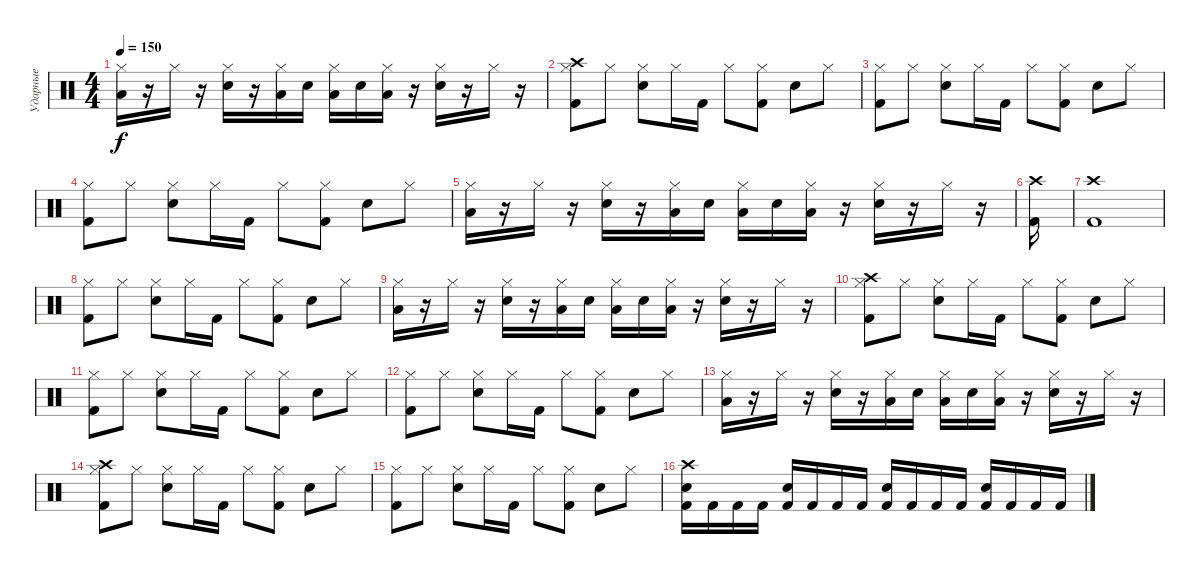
\track ("Ударные" "Ударные") {instrument percussion}
\staff {score}
\articulation defaults
\ts (4 4)
\tempo 150
\clef neutral
\ks c
("Low Floor Tom (hit)" "Hi-Hat (closed)").16{dy f} r.16 "Hi-Hat (closed)".16 r.16 ("Electric Snare (hit)" "Hi-Hat (closed)").16 r.16 ("Low Floor Tom (hit)" "Hi-Hat (closed)").16 "Electric Snare (hit)".16 ("Low Floor Tom (hit)" "Hi-Hat (closed)").16 "Electric Snare (hit)".16 ("Low Floor Tom (hit)" "Hi-Hat (closed)").16 r.16 ("Electric Snare (hit)" "Hi-Hat (closed)").16 r.16 "Hi-Hat (closed)".16 r.16 |
("Kick (hit) 2" "Hi-Hat (closed)" "Crash high (hit)").8 "Hi-Hat (closed)".8 ("Electric Snare (hit)" "Hi-Hat (closed)").8 "Hi-Hat (closed)".16 "Kick (hit) 2".16 "Hi-Hat (closed)".8 ("Kick (hit) 2" "Hi-Hat (closed)").8 "Electric Snare (hit)".8 "Hi-Hat (closed)".8 |
("Kick (hit) 2" "Hi-Hat (closed)").8 "Hi-Hat (closed)".8 ("Electric Snare (hit)" "Hi-Hat (closed)").8 "Hi-Hat (closed)".16 "Kick (hit) 2".16 "Hi-Hat (closed)".8 ("Kick (hit) 2" "Hi-Hat (closed)").8 "Electric Snare (hit)".8 "Hi-Hat (closed)".8 |
("Kick (hit) 2" "Hi-Hat (closed)").8 "Hi-Hat (closed)".8 ("Electric Snare (hit)" "Hi-Hat (closed)").8 "Hi-Hat (closed)".16 "Kick (hit) 2".16 "Hi-Hat (closed)".8 ("Kick (hit) 2" "Hi-Hat (closed)").8 "Electric Snare (hit)".8 "Hi-Hat (closed)".8 |
("Low Floor Tom (hit)" "Hi-Hat (closed)").16 r.16 "Hi-Hat (closed)".16 r.16 ("Electric Snare (hit)" "Hi-Hat (closed)").16 r.16 ("Low Floor Tom (hit)" "Hi-Hat (closed)").16 "Electric Snare (hit)".16 ("Low Floor Tom (hit)" "Hi-Hat (closed)").16 "Electric Snare (hit)".16 ("Low Floor Tom (hit)" "Hi-Hat (closed)").16 r.16 ("Electric Snare (hit)" "Hi-Hat (closed)").16 r.16 "Hi-Hat (closed)".16 r.16 |
("Kick (hit) 2" "Crash high (hit)").16 |
("Crash high (hit)" "Kick (hit) 2").1 |
("Kick (hit) 2" "Hi-Hat (closed)").8 "Hi-Hat (closed)".8 ("Electric Snare (hit)" "Hi-Hat (closed)").8 "Hi-Hat (closed)".16 "Kick (hit) 2".16 "Hi-Hat (closed)".8 ("Kick (hit) 2" "Hi-Hat (closed)").8 "Electric Snare (hit)".8 "Hi-Hat (closed)".8 |
("Low Floor Tom (hit)" "Hi-Hat (closed)").16 r.16 "Hi-Hat (closed)".16 r.16 ("Electric Snare (hit)" "Hi-Hat (closed)").16 r.16 ("Low Floor Tom (hit)" "Hi-Hat (closed)").16 "Electric Snare (hit)".16 ("Low Floor Tom (hit)" "Hi-Hat (closed)").16 "Electric Snare (hit)".16 ("Low Floor Tom (hit)" "Hi-Hat (closed)").16 r.16 ("Electric Snare (hit)" "Hi-Hat (closed)").16 r.16 "Hi-Hat (closed)".16 r.16 |
("Kick (hit) 2" "Hi-Hat (closed)" "Crash high (hit)").8 "Hi-Hat (closed)".8 ("Electric Snare (hit)" "Hi-Hat (closed)").8 "Hi-Hat (closed)".16 "Kick (hit) 2".16 "Hi-Hat (closed)".8 ("Kick (hit) 2" "Hi-Hat (closed)").8 "Electric Snare (hit)".8 "Hi-Hat (closed)".8 |
("Kick (hit) 2" "Hi-Hat (closed)").8 "Hi-Hat (closed)".8 ("Electric Snare (hit)" "Hi-Hat (closed)").8 "Hi-Hat (closed)".16 "Kick (hit) 2".16 "Hi-Hat (closed)".8 ("Kick (hit) 2" "Hi-Hat (closed)").8 "Electric Snare (hit)".8 "Hi-Hat (closed)".8 |
("Kick (hit) 2" "Hi-Hat (closed)").8 "Hi-Hat (closed)".8 ("Electric Snare (hit)" "Hi-Hat (closed)").8 "Hi-Hat (closed)".16 "Kick (hit) 2".16 "Hi-Hat (closed)".8 ("Kick (hit) 2" "Hi-Hat (closed)").8 "Electric Snare (hit)".8 "Hi-Hat (closed)".8 |
("Low Floor Tom (hit)" "Hi-Hat (closed)").16 r.16 "Hi-Hat (closed)".16 r.16 ("Electric Snare (hit)" "Hi-Hat (closed)").16 r.16 ("Low Floor Tom (hit)" "Hi-Hat (closed)").16 "Electric Snare (hit)".16 ("Low Floor Tom (hit)" "Hi-Hat (closed)").16 "Electric Snare (hit)".16 ("Low Floor Tom (hit)" "Hi-Hat (closed)").16 r.16 ("Electric Snare (hit)" "Hi-Hat (closed)").16 r.16 "Hi-Hat (closed)".16 r.16 |
("Kick (hit) 2" "Hi-Hat (closed)" "Crash high (hit)").8 "Hi-Hat (closed)".8 ("Electric Snare (hit)" "Hi-Hat (closed)").8 "Hi-Hat (closed)".16 "Kick (hit) 2".16 "Hi-Hat (closed)".8 ("Kick (hit) 2" "Hi-Hat (closed)").8 "Electric Snare (hit)".8 "Hi-Hat (closed)".8 |
("Kick (hit) 2" "Hi-Hat (closed)").8 "Hi-Hat (closed)".8 ("Electric Snare (hit)" "Hi-Hat (closed)").8 "Hi-Hat (closed)".16 "Kick (hit) 2".16 "Hi-Hat (closed)".8 ("Kick (hit) 2" "Hi-Hat (closed)").8 "Electric Snare (hit)".8 "Hi-Hat (closed)".8 |
("Crash high (hit)" "Electric Snare (hit)" "Kick (hit) 2").16 "Kick (hit) 2".16 "Kick (hit) 2".16 "Kick (hit) 2".16 ("Electric Snare (hit)" "Kick (hit) 2").16 "Kick (hit) 2".16 "Kick (hit) 2".16 "Kick (hit) 2".16 ("Electric Snare (hit)" "Kick (hit) 2").16 "Kick (hit) 2".16 "Kick (hit) 2".16 "Kick (hit) 2".16 ("Electric Snare (hit)" "Kick (hit) 2").16 "Kick (hit) 2".16 "Kick (hit) 2".16 "Kick (hit) 2".16
